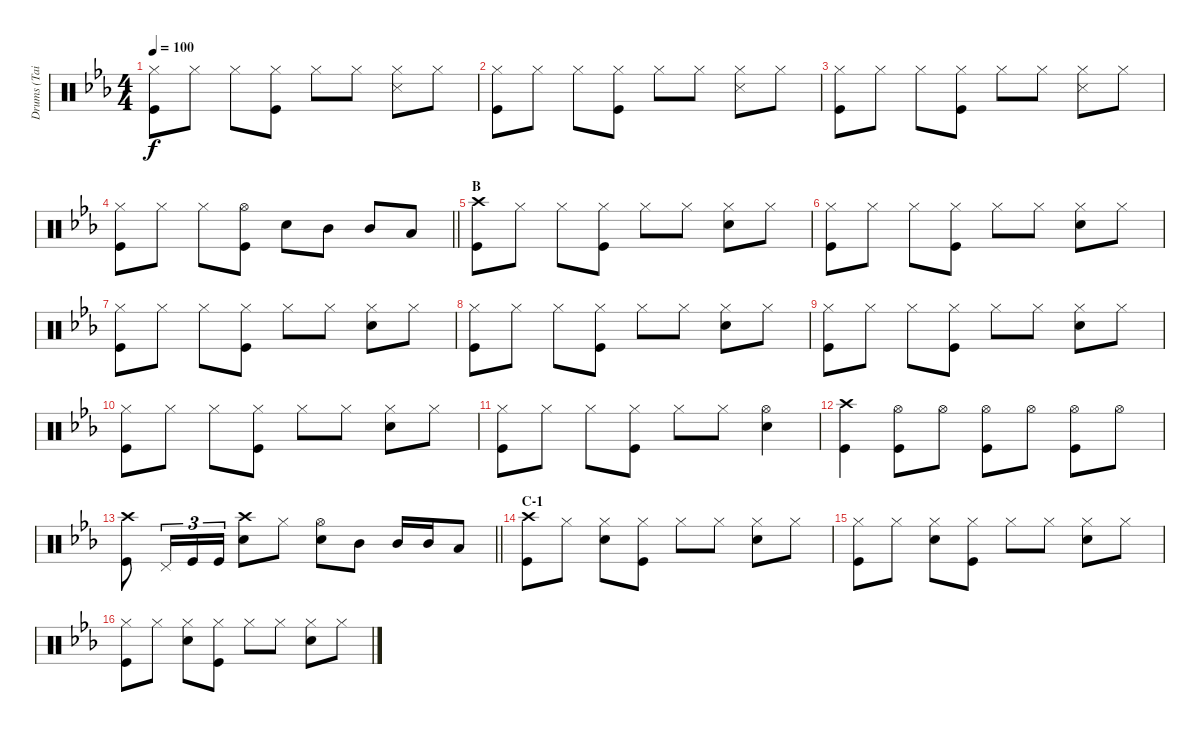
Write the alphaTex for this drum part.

\track ("Drums (Tainaka Ritsu)" "Drums (Tai") {instrument percussion}
\staff {score}
\articulation defaults
\ts (4 4)
\tempo 100
\clef neutral
\ks eb
("Hi-Hat (closed)" "Kick (hit)").8{dy f} "Hi-Hat (closed)".8 "Hi-Hat (closed)".8 ("Hi-Hat (closed)" "Kick (hit)").8 "Hi-Hat (closed)".8 "Hi-Hat (closed)".8 ("Hi-Hat (closed)" "Snare (side stick) 3").8 "Hi-Hat (closed)".8 |
("Hi-Hat (closed)" "Kick (hit)").8 "Hi-Hat (closed)".8 "Hi-Hat (closed)".8 ("Hi-Hat (closed)" "Kick (hit)").8 "Hi-Hat (closed)".8 "Hi-Hat (closed)".8 ("Hi-Hat (closed)" "Snare (side stick) 3").8 "Hi-Hat (closed)".8 |
("Hi-Hat (closed)" "Kick (hit)").8 "Hi-Hat (closed)".8 "Hi-Hat (closed)".8 ("Hi-Hat (closed)" "Kick (hit)").8 "Hi-Hat (closed)".8 "Hi-Hat (closed)".8 ("Hi-Hat (closed)" "Snare (side stick) 3").8 "Hi-Hat (closed)".8 |
\barLineRight lightlight
("Hi-Hat (closed)" "Kick (hit)").8 "Hi-Hat (closed)".8 "Hi-Hat (closed)".8 ("Hi-Hat (open)" "Kick (hit)").8 "Snare (hit) 2".8 "Mid Tom (hit)".8 "Mid Tom (hit)".8 "Low Tom (hit)".8 |
\section ("" "B")
("Crash high (hit)" "Kick (hit)").8 "Hi-Hat (closed)".8 "Hi-Hat (closed)".8 ("Hi-Hat (closed)" "Kick (hit)").8 "Hi-Hat (closed)".8 "Hi-Hat (closed)".8 ("Hi-Hat (closed)" "Snare (hit) 2").8 "Hi-Hat (closed)".8 |
("Hi-Hat (closed)" "Kick (hit)").8 "Hi-Hat (closed)".8 "Hi-Hat (closed)".8 ("Hi-Hat (closed)" "Kick (hit)").8 "Hi-Hat (closed)".8 "Hi-Hat (closed)".8 ("Hi-Hat (closed)" "Snare (hit) 2").8 "Hi-Hat (closed)".8 |
("Hi-Hat (closed)" "Kick (hit)").8 "Hi-Hat (closed)".8 "Hi-Hat (closed)".8 ("Hi-Hat (closed)" "Kick (hit)").8 "Hi-Hat (closed)".8 "Hi-Hat (closed)".8 ("Hi-Hat (closed)" "Snare (hit) 2").8 "Hi-Hat (closed)".8 |
("Hi-Hat (closed)" "Kick (hit)").8 "Hi-Hat (closed)".8 "Hi-Hat (closed)".8 ("Hi-Hat (closed)" "Kick (hit)").8 "Hi-Hat (closed)".8 "Hi-Hat (closed)".8 ("Hi-Hat (closed)" "Snare (hit) 2").8 "Hi-Hat (closed)".8 |
("Hi-Hat (closed)" "Kick (hit)").8 "Hi-Hat (closed)".8 "Hi-Hat (closed)".8 ("Hi-Hat (closed)" "Kick (hit)").8 "Hi-Hat (closed)".8 "Hi-Hat (closed)".8 ("Hi-Hat (closed)" "Snare (hit) 2").8 "Hi-Hat (closed)".8 |
("Hi-Hat (closed)" "Kick (hit)").8 "Hi-Hat (closed)".8 "Hi-Hat (closed)".8 ("Hi-Hat (closed)" "Kick (hit)").8 "Hi-Hat (closed)".8 "Hi-Hat (closed)".8 ("Hi-Hat (closed)" "Snare (hit) 2").8 "Hi-Hat (closed)".8 |
("Hi-Hat (closed)" "Kick (hit)").8 "Hi-Hat (closed)".8 "Hi-Hat (closed)".8 ("Hi-Hat (closed)" "Kick (hit)").8 "Hi-Hat (closed)".8 "Hi-Hat (closed)".8 ("Hi-Hat (open)" "Snare (hit) 2").4 |
("Crash high (hit)" "Kick (hit)").4 ("Hi-Hat (open)" "Kick (hit)").8 "Hi-Hat (open)".8 ("Hi-Hat (open)" "Kick (hit)").8 "Hi-Hat (open)".8 ("Hi-Hat (open)" "Kick (hit)").8 "Hi-Hat (open)".8 |
\barLineRight lightlight
("Crash high (hit)" "Kick (hit)").8 "Pedal Hi-Hat (hit)".16{tu (3 2)} "Kick (hit)".16{tu (3 2)} "Kick (hit)".16{tu (3 2)} ("Crash high (hit)" "Snare (hit) 2").8 "Hi-Hat (closed)".8 ("Hi-Hat (open)" "Snare (hit) 2").8 "Mid Tom (hit)".8 "Mid Tom (hit)".16 "Mid Tom (hit)".16 "Low Tom (hit)".8 |
\section ("" "C-1")
("Crash high (hit)" "Kick (hit)").8 "Hi-Hat (closed)".8 ("Hi-Hat (closed)" "Snare (hit) 2").8 ("Hi-Hat (closed)" "Kick (hit)").8 "Hi-Hat (closed)".8 "Hi-Hat (closed)".8 ("Hi-Hat (closed)" "Snare (hit) 2").8 "Hi-Hat (closed)".8 |
("Hi-Hat (closed)" "Kick (hit)").8 "Hi-Hat (closed)".8 ("Hi-Hat (closed)" "Snare (hit) 2").8 ("Hi-Hat (closed)" "Kick (hit)").8 "Hi-Hat (closed)".8 "Hi-Hat (closed)".8 ("Hi-Hat (closed)" "Snare (hit) 2").8 "Hi-Hat (closed)".8 |
("Hi-Hat (closed)" "Kick (hit)").8 "Hi-Hat (closed)".8 ("Hi-Hat (closed)" "Snare (hit) 2").8 ("Hi-Hat (closed)" "Kick (hit)").8 "Hi-Hat (closed)".8 "Hi-Hat (closed)".8 ("Hi-Hat (closed)" "Snare (hit) 2").8 "Hi-Hat (closed)".8
